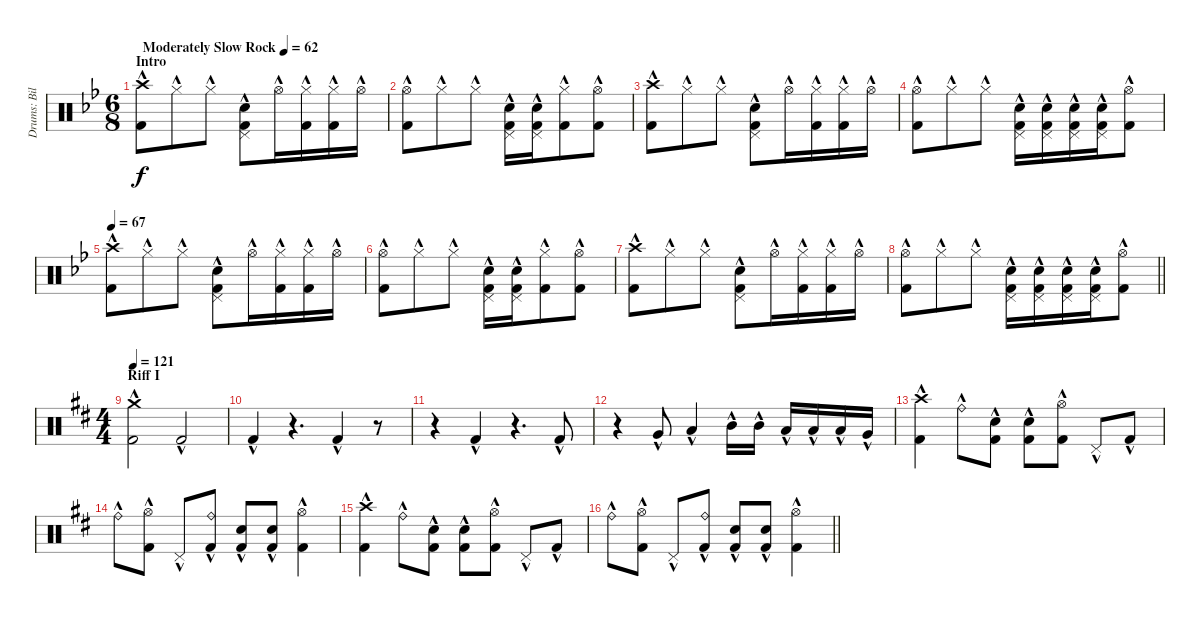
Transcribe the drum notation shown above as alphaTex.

\track ("Drums: Bill" "Drums: Bil") {instrument percussion}
\staff {score}
\articulation defaults
\ts (6 8)
\section ("" "Intro")
\tempo (62 "Moderately Slow Rock")
\tempo 71
\tempo (62 "Moderately Slow Rock")
\clef neutral
\ks bb
("Crash high (hit)"{hac} "Kick (hit) 2"{hac}).8{dy f} "Hi-Hat (closed)"{hac}.8 "Hi-Hat (closed)"{hac}.8 ("Pedal Hi-Hat (hit)"{hac} "Electric Snare (hit)"{hac} "Kick (hit) 2"{hac}).8 "Hi-Hat (open)"{hac}.16 ("Hi-Hat (closed)"{hac} "Kick (hit) 2"{hac}).16 ("Hi-Hat (closed)"{hac} "Kick (hit) 2"{hac}).16 "Hi-Hat (open)"{hac}.16 |
("Hi-Hat (open)"{hac} "Kick (hit) 2"{hac}).8 "Hi-Hat (closed)"{hac}.8 "Hi-Hat (closed)"{hac}.8 ("Pedal Hi-Hat (hit)"{hac} "Electric Snare (hit)"{hac} "Kick (hit) 2"{hac}).16 ("Pedal Hi-Hat (hit)"{hac} "Electric Snare (hit)"{hac} "Kick (hit) 2"{hac}).16 ("Hi-Hat (closed)"{hac} "Kick (hit) 2"{hac}).8 ("Hi-Hat (open)"{hac} "Kick (hit) 2"{hac}).8 |
("Crash high (hit)"{hac} "Kick (hit) 2"{hac}).8 "Hi-Hat (closed)"{hac}.8 "Hi-Hat (closed)"{hac}.8 ("Pedal Hi-Hat (hit)"{hac} "Electric Snare (hit)"{hac} "Kick (hit) 2"{hac}).8 "Hi-Hat (open)"{hac}.16 ("Hi-Hat (closed)"{hac} "Kick (hit) 2"{hac}).16 ("Hi-Hat (closed)"{hac} "Kick (hit) 2"{hac}).16 "Hi-Hat (open)"{hac}.16 |
("Hi-Hat (open)"{hac} "Kick (hit) 2"{hac}).8 "Hi-Hat (closed)"{hac}.8 "Hi-Hat (closed)"{hac}.8 ("Pedal Hi-Hat (hit)"{hac} "Electric Snare (hit)"{hac} "Kick (hit) 2"{hac}).16 ("Pedal Hi-Hat (hit)"{hac} "Electric Snare (hit)"{hac} "Kick (hit) 2"{hac}).16 ("Pedal Hi-Hat (hit)"{hac} "Electric Snare (hit)"{hac} "Kick (hit) 2"{hac}).16 ("Pedal Hi-Hat (hit)"{hac} "Electric Snare (hit)"{hac} "Kick (hit) 2"{hac}).16 ("Hi-Hat (open)"{hac} "Kick (hit) 2"{hac}).8 |
\tempo 67
("Crash high (hit)"{hac} "Kick (hit) 2"{hac}).8 "Hi-Hat (closed)"{hac}.8 "Hi-Hat (closed)"{hac}.8 ("Pedal Hi-Hat (hit)"{hac} "Electric Snare (hit)"{hac} "Kick (hit) 2"{hac}).8 "Hi-Hat (open)"{hac}.16 ("Hi-Hat (closed)"{hac} "Kick (hit) 2"{hac}).16 ("Hi-Hat (closed)"{hac} "Kick (hit) 2"{hac}).16 "Hi-Hat (open)"{hac}.16 |
("Hi-Hat (open)"{hac} "Kick (hit) 2"{hac}).8 "Hi-Hat (closed)"{hac}.8 "Hi-Hat (closed)"{hac}.8 ("Pedal Hi-Hat (hit)"{hac} "Electric Snare (hit)"{hac} "Kick (hit) 2"{hac}).16 ("Pedal Hi-Hat (hit)"{hac} "Electric Snare (hit)"{hac} "Kick (hit) 2"{hac}).16 ("Hi-Hat (closed)"{hac} "Kick (hit) 2"{hac}).8 ("Hi-Hat (open)"{hac} "Kick (hit) 2"{hac}).8 |
("Crash high (hit)"{hac} "Kick (hit) 2"{hac}).8 "Hi-Hat (closed)"{hac}.8 "Hi-Hat (closed)"{hac}.8 ("Pedal Hi-Hat (hit)"{hac} "Electric Snare (hit)"{hac} "Kick (hit) 2"{hac}).8 "Hi-Hat (open)"{hac}.16 ("Hi-Hat (closed)"{hac} "Kick (hit) 2"{hac}).16 ("Hi-Hat (closed)"{hac} "Kick (hit) 2"{hac}).16 "Hi-Hat (open)"{hac}.16 |
\barLineRight lightlight
("Hi-Hat (open)"{hac} "Kick (hit) 2"{hac}).8 "Hi-Hat (closed)"{hac}.8 "Hi-Hat (closed)"{hac}.8 ("Pedal Hi-Hat (hit)"{hac} "Electric Snare (hit)"{hac} "Kick (hit) 2"{hac}).16 ("Pedal Hi-Hat (hit)"{hac} "Electric Snare (hit)"{hac} "Kick (hit) 2"{hac}).16 ("Pedal Hi-Hat (hit)"{hac} "Electric Snare (hit)"{hac} "Kick (hit) 2"{hac}).16 ("Pedal Hi-Hat (hit)"{hac} "Electric Snare (hit)"{hac} "Kick (hit) 2"{hac}).16 ("Hi-Hat (open)"{hac} "Kick (hit) 2"{hac}).8 |
\ts (4 4)
\section ("" "Riff I")
\tempo 121
\ks d
("Crash medium (hit)"{hac} "Kick (hit) 2"{hac}).2 "Kick (hit) 2"{hac}.2 |
"Kick (hit) 2"{hac}.4 r.4{d} "Kick (hit) 2"{hac}.4 r.8 |
r.4 "Kick (hit) 2"{hac}.4 r.4{d} "Kick (hit) 2"{hac}.8 |
r.4 "Very Low Tom (hit)"{hac}.8 "Low Tom (hit)"{hac}.4 "Mid Tom (hit)"{hac}.16 "Mid Tom (hit)"{hac}.16 "Low Tom (hit)"{hac}.16 "Low Tom (hit)"{hac}.16 "Low Tom (hit)"{hac}.16 "Very Low Tom (hit)"{hac}.16 |
("Crash high (hit)"{hac} "Kick (hit) 2"{hac}).4 "Ride (bell)"{hac}.8 ("Electric Snare (hit)"{hac} "Kick (hit) 2"{hac}).8 ("Electric Snare (hit)"{hac} "Kick (hit) 2"{hac}).8 ("Hi-Hat (open)"{hac} "Kick (hit) 2"{hac}).8 "Pedal Hi-Hat (hit)"{hac}.8 "Kick (hit) 2"{hac}.8 |
"Ride (bell)"{hac}.8 ("Hi-Hat (open)"{hac} "Kick (hit) 2"{hac}).8 "Pedal Hi-Hat (hit)"{hac}.8 ("Ride (bell)"{hac} "Kick (hit) 2"{hac}).8 ("Electric Snare (hit)"{hac} "Kick (hit) 2"{hac}).8 ("Electric Snare (hit)"{hac} "Kick (hit) 2"{hac}).8 ("Hi-Hat (open)"{hac} "Kick (hit) 2"{hac}).4 |
("Crash high (hit)"{hac} "Kick (hit) 2"{hac}).4 "Ride (bell)"{hac}.8 ("Electric Snare (hit)"{hac} "Kick (hit) 2"{hac}).8 ("Electric Snare (hit)"{hac} "Kick (hit) 2"{hac}).8 ("Hi-Hat (open)"{hac} "Kick (hit) 2"{hac}).8 "Pedal Hi-Hat (hit)"{hac}.8 "Kick (hit) 2"{hac}.8 |
\barLineRight lightlight "Ride (bell)"{hac}.8
("Hi-Hat (open)"{hac} "Kick (hit) 2"{hac}).8 "Pedal Hi-Hat (hit)"{hac}.8 ("Ride (bell)"{hac} "Kick (hit) 2"{hac}).8 ("Electric Snare (hit)"{hac} "Kick (hit) 2"{hac}).8 ("Electric Snare (hit)"{hac} "Kick (hit) 2"{hac}).8 ("Hi-Hat (open)"{hac} "Kick (hit) 2"{hac}).4
